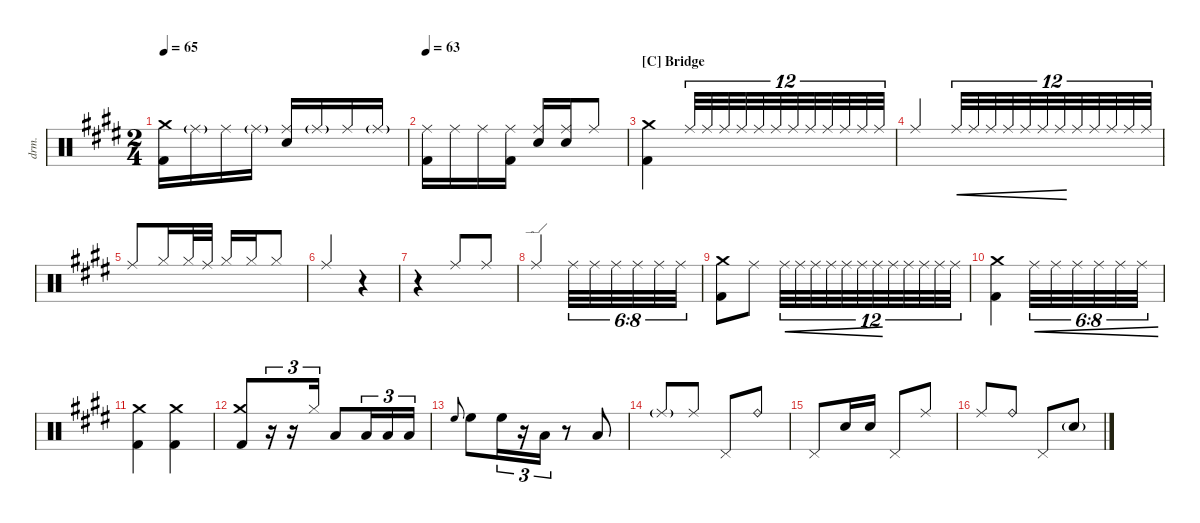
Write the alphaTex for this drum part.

\defaultSystemsLayout 4
\hideDynamics
\bracketExtendMode groupsimilarinstruments
\otherSystemsTrackNameOrientation horizontal
\chordDiagramsInScore
\track ("Drumkit" "drm.") {instrument percussion}
\staff {score}
\articulation defaults
\ts (2 4)
\tempo 65
\clef neutral
\ks e
("Kick (hit) 2"{acc forcenatural} "Crash medium (hit)"{acc forcenatural}).16{dy mf} "Ride (middle)"{g acc forcenatural}.16 "Ride (middle)"{acc forcenatural}.16 "Ride (middle)"{g acc forcenatural}.16 ("Ride (middle)"{acc forcenatural} "Snare (hit) 2"{acc forcenatural}).16{beam Up} "Ride (middle)"{g acc forcenatural}.16{beam Up} "Ride (middle)"{acc forcenatural}.16{beam Up} "Ride (middle)"{g acc forcenatural}.16{beam Up} |
\tempo 63
("Ride (middle)"{acc forcenatural} "Kick (hit) 2"{acc forcenatural}).16 "Ride (middle)"{acc forcenatural}.16 "Ride (middle)"{acc forcenatural}.16 ("Ride (middle)"{acc forcenatural} "Kick (hit) 2"{acc forcenatural}).16 ("Ride (middle)"{acc forcenatural} "Snare (hit) 2"{acc forcenatural}).16{beam Up} ("Ride (middle)"{acc forcenatural} "Snare (hit) 2"{acc forcenatural}).16{beam Up} "Ride (middle)"{acc forcenatural}.8{beam Up} |
\section ("C" "Bridge")
\scale
1.33722 ("Crash medium (hit)"{acc forcenatural} "Kick (hit) 2"{acc forcenatural}).4 "Ride (middle)"{acc forcenatural}.32{tu (12 8) beam Up} "Ride (middle)"{acc forcenatural}.32{tu (12 8) beam Up} "Ride (middle)"{acc forcenatural}.32{tu (12 8) beam Up} "Ride (middle)"{acc forcenatural}.32{tu (12 8) beam Up} "Ride (middle)"{acc forcenatural}.32{tu (12 8) beam Up} "Ride (middle)"{acc forcenatural}.32{tu (12 8) beam Up} "Ride (middle)"{acc forcenatural}.32{tu (12 8) beam Up} "Ride (middle)"{acc forcenatural}.32{tu (12 8) beam Up} "Ride (middle)"{acc forcenatural}.32{tu (12 8) beam Up} "Ride (middle)"{acc forcenatural}.32{tu (12 8) beam Up} "Ride (middle)"{acc forcenatural}.32{tu (12 8) beam Up} "Ride (middle)"{acc forcenatural}.32{tu (12 8) beam Up} |
\scale
0.994954 "Ride (middle)"{acc forcenatural}.4{beam Up} "Ride (middle)"{acc forcenatural}.32{tu (12 8) cre beam Up} "Ride (middle)"{acc forcenatural}.32{tu (12 8) cre beam Up} "Ride (middle)"{acc forcenatural}.32{tu (12 8) cre beam Up} "Ride (middle)"{acc forcenatural}.32{tu (12 8) cre beam Up} "Ride (middle)"{acc forcenatural}.32{tu (12 8) cre beam Up} "Ride (middle)"{acc forcenatural}.32{tu (12 8) cre beam Up} "Ride (middle)"{acc forcenatural}.32{tu (12 8) cre beam Up} "Ride (middle)"{acc forcenatural}.32{tu (12 8) beam Up} "Ride (middle)"{acc forcenatural}.32{tu (12 8) beam Up} "Ride (middle)"{acc forcenatural}.32{tu (12 8) beam Up} "Ride (middle)"{acc forcenatural}.32{tu (12 8) beam Up} "Ride (middle)"{acc forcenatural}.32{tu (12 8) beam Up} |
\scale
1.11806 "Ride (middle)"{acc forcenatural}.8{beam Up} "Hi-Hat (closed)"{acc forcenatural}.16{beam Up} "Hi-Hat (closed)"{acc forcenatural}.32{beam Up} "Ride (middle)"{acc forcenatural}.32{beam Up} "Hi-Hat (closed)"{acc forcenatural}.16{beam Up} "Hi-Hat (closed)"{acc forcenatural}.16{beam Up} "Hi-Hat (closed)"{acc forcenatural}.8{beam Up} |
\scale
0.54977 "Ride (middle)"{acc forcenatural}.4{beam Up} r.4 |
r.4 "Ride (middle)"{acc forcenatural}.8{beam Up} "Ride (middle)"{acc forcenatural}.8{beam Up} |
"Ride (edge)"{acc forcenatural}.4{beam Up} "Ride (middle)"{acc forcenatural}.32{tu (6 8)} "Ride (middle)"{acc forcenatural}.32{tu (6 8)} "Ride (middle)"{acc forcenatural}.32{tu (6 8)} "Ride (middle)"{acc forcenatural}.32{tu (6 8)} "Ride (middle)"{acc forcenatural}.32{tu (6 8)} "Ride (middle)"{acc forcenatural}.32{tu (6 8)} |
("Crash medium (hit)"{acc forcenatural} "Kick (hit) 2"{acc forcenatural}).8 "Ride (middle)"{acc forcenatural}.8 "Ride (middle)"{acc forcenatural}.32{tu (12 8) cre} "Ride (middle)"{acc forcenatural}.32{tu (12 8) cre} "Ride (middle)"{acc forcenatural}.32{tu (12 8) cre} "Ride (middle)"{acc forcenatural}.32{tu (12 8) cre} "Ride (middle)"{acc forcenatural}.32{tu (12 8) cre} "Ride (middle)"{acc forcenatural}.32{tu (12 8) cre} "Ride (middle)"{acc forcenatural}.32{tu (12 8) cre} "Ride (middle)"{acc forcenatural}.32{tu (12 8)} "Ride (middle)"{acc forcenatural}.32{tu (12 8)} "Ride (middle)"{acc forcenatural}.32{tu (12 8)} "Ride (middle)"{acc forcenatural}.32{tu (12 8)} "Ride (middle)"{acc forcenatural}.32{tu (12 8)} |
("Crash medium (hit)"{acc forcenatural} "Kick (hit) 2"{acc forcenatural}).4 "Ride (middle)"{acc forcenatural}.32{tu (6 8) cre} "Ride (middle)"{acc forcenatural}.32{tu (6 8) cre} "Ride (middle)"{acc forcenatural}.32{tu (6 8) cre} "Ride (middle)"{acc forcenatural}.32{tu (6 8) cre} "Ride (middle)"{acc forcenatural}.32{tu (6 8) cre} "Ride (middle)"{acc forcenatural}.32{tu (6 8) cre} |
("Crash medium (hit)"{acc forcenatural} "Kick (hit) 2"{acc forcenatural}).4 ("Crash medium (hit)"{acc forcenatural} "Kick (hit) 2"{acc forcenatural}).4 |
("Crash medium (hit)"{acc forcenatural} "Kick (hit) 2"{acc forcenatural}).8{beam Up beam merge} r.16{tu (3 2) beam Up beam merge} r.16{tu (3 2) beam Up beam merge} "Hi-Hat (closed)"{acc forcenatural}.16{tu (3 2) beam Up} "Low Tom (hit)"{acc forcenatural}.8{beam merge} "Low Tom (hit)"{acc forcenatural}.16{tu (3 2)} "Low Tom (hit)"{acc forcenatural}.16{tu (3 2)} "Low Tom (hit)"{acc forcenatural}.16{tu (3 2)} |
"High Floor Tom (hit)"{acc forcenatural}.8{gr onbeat} "High Floor Tom (hit)"{acc forcenatural}.8{beam merge} "High Floor Tom (hit)"{acc forcenatural}.16{tu (3 2)} r.16{tu (3 2)} "Low Tom (hit)"{acc forcenatural}.16{tu (3 2)} r.8 "Low Tom (hit)"{acc forcenatural}.8 |
"Ride (middle)"{g acc forcenatural}.8{beam Up} "Ride (middle)"{acc forcenatural}.8{beam Up} "Pedal Hi-Hat (hit)"{acc forcenatural}.8 "Ride (bell)"{acc forcenatural}.8 |
\scale
1.2128 "Pedal Hi-Hat (hit)"{acc forcenatural}.8 "Snare (hit) 2"{acc forcenatural}.16 "Snare (hit) 2"{acc forcenatural}.16 "Pedal Hi-Hat (hit)"{acc forcenatural}.8 "Ride (middle)"{acc forcenatural}.8 |
\scale
0.86679 "Ride (middle)"{acc forcenatural}.8{beam Up} "Ride (bell)"{acc forcenatural}.8{beam Up} "Pedal Hi-Hat (hit)"{acc forcenatural}.8 "Snare (hit) 2"{g acc forcenatural}.8
